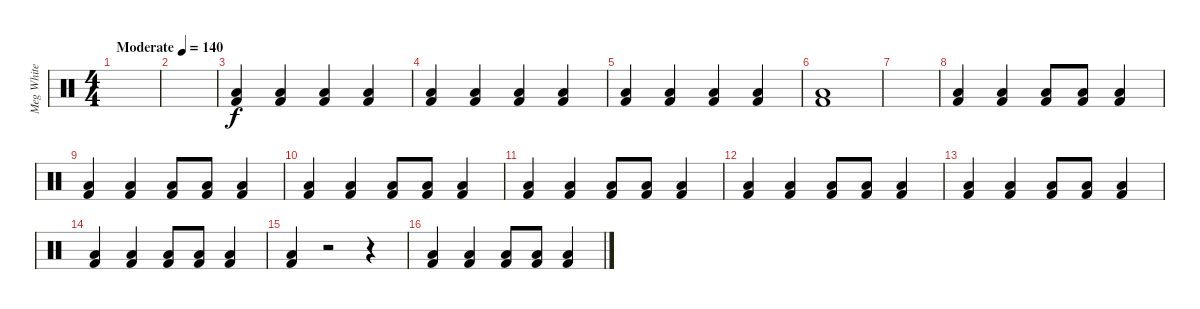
\track ("Meg White" "Meg White") {instrument percussion}
\staff {score}
\articulation defaults
\ts (4 4)
\tempo (140 "Moderate")
\clef neutral
\ks c
|
|
("Kick (hit) 2" "Low Floor Tom (hit)").4 ("Kick (hit) 2" "Low Floor Tom (hit)").4 ("Kick (hit) 2" "Low Floor Tom (hit)").4 ("Kick (hit) 2" "Low Floor Tom (hit)").4 |
("Kick (hit) 2" "Low Floor Tom (hit)").4 ("Kick (hit) 2" "Low Floor Tom (hit)").4 ("Kick (hit) 2" "Low Floor Tom (hit)").4 ("Kick (hit) 2" "Low Floor Tom (hit)").4 |
("Kick (hit) 2" "Low Floor Tom (hit)").4 ("Kick (hit) 2" "Low Floor Tom (hit)").4 ("Kick (hit) 2" "Low Floor Tom (hit)").4 ("Kick (hit) 2" "Low Floor Tom (hit)").4 |
("Kick (hit) 2" "Low Floor Tom (hit)").1 |
|
("Kick (hit) 2" "Low Floor Tom (hit)").4 ("Kick (hit) 2" "Low Floor Tom (hit)").4 ("Kick (hit) 2" "Low Floor Tom (hit)").8 ("Kick (hit) 2" "Low Floor Tom (hit)").8 ("Kick (hit) 2" "Low Floor Tom (hit)").4 |
("Kick (hit) 2" "Low Floor Tom (hit)").4 ("Kick (hit) 2" "Low Floor Tom (hit)").4 ("Kick (hit) 2" "Low Floor Tom (hit)").8 ("Kick (hit) 2" "Low Floor Tom (hit)").8 ("Kick (hit) 2" "Low Floor Tom (hit)").4 |
("Kick (hit) 2" "Low Floor Tom (hit)").4 ("Kick (hit) 2" "Low Floor Tom (hit)").4 ("Kick (hit) 2" "Low Floor Tom (hit)").8 ("Kick (hit) 2" "Low Floor Tom (hit)").8 ("Kick (hit) 2" "Low Floor Tom (hit)").4 |
("Kick (hit) 2" "Low Floor Tom (hit)").4 ("Kick (hit) 2" "Low Floor Tom (hit)").4 ("Kick (hit) 2" "Low Floor Tom (hit)").8 ("Kick (hit) 2" "Low Floor Tom (hit)").8 ("Kick (hit) 2" "Low Floor Tom (hit)").4 |
("Kick (hit) 2" "Low Floor Tom (hit)").4 ("Kick (hit) 2" "Low Floor Tom (hit)").4 ("Kick (hit) 2" "Low Floor Tom (hit)").8 ("Kick (hit) 2" "Low Floor Tom (hit)").8 ("Kick (hit) 2" "Low Floor Tom (hit)").4 |
("Kick (hit) 2" "Low Floor Tom (hit)").4 ("Kick (hit) 2" "Low Floor Tom (hit)").4 ("Kick (hit) 2" "Low Floor Tom (hit)").8 ("Kick (hit) 2" "Low Floor Tom (hit)").8 ("Kick (hit) 2" "Low Floor Tom (hit)").4 |
("Kick (hit) 2" "Low Floor Tom (hit)").4 ("Kick (hit) 2" "Low Floor Tom (hit)").4 ("Kick (hit) 2" "Low Floor Tom (hit)").8 ("Kick (hit) 2" "Low Floor Tom (hit)").8 ("Kick (hit) 2" "Low Floor Tom (hit)").4 |
("Kick (hit) 2" "Low Floor Tom (hit)").4 r.2 r.4 |
("Kick (hit) 2" "Low Floor Tom (hit)").4 ("Kick (hit) 2" "Low Floor Tom (hit)").4 ("Kick (hit) 2" "Low Floor Tom (hit)").8 ("Kick (hit) 2" "Low Floor Tom (hit)").8 ("Kick (hit) 2" "Low Floor Tom (hit)").4
